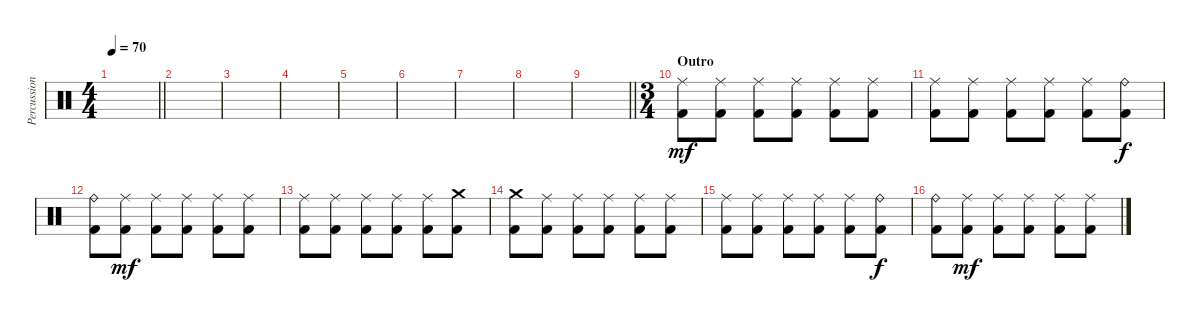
\track ("Percussion" "Percussion") {instrument percussion}
\staff {score}
\articulation defaults
\ts (4 4)
\tempo 70
\clef neutral
\barLineRight lightlight
\ks c
|
|
|
|
|
|
|
|
\barLineRight lightlight
|
\ts (3 4)
\section ("" "Outro")
("Ride (middle)" "Kick (hit) 2").8{dy mf} ("Ride (middle)" "Kick (hit) 2").8 ("Ride (middle)" "Kick (hit) 2").8 ("Ride (middle)" "Kick (hit) 2").8 ("Ride (middle)" "Kick (hit) 2").8 ("Ride (middle)" "Kick (hit) 2").8 |
("Ride (middle)" "Kick (hit) 2").8 ("Ride (middle)" "Kick (hit) 2").8 ("Ride (middle)" "Kick (hit) 2").8 ("Ride (middle)" "Kick (hit) 2").8 ("Ride (middle)" "Kick (hit) 2").8 ("Ride (bell)" "Kick (hit) 2").8{dy f} |
("Ride (bell)" "Kick (hit) 2").8 ("Ride (middle)" "Kick (hit) 2").8{dy mf} ("Ride (middle)" "Kick (hit) 2").8 ("Ride (middle)" "Kick (hit) 2").8 ("Ride (middle)" "Kick (hit) 2").8 ("Ride (middle)" "Kick (hit) 2").8 |
("Ride (middle)" "Kick (hit) 2").8 ("Ride (middle)" "Kick (hit) 2").8 ("Ride (middle)" "Kick (hit) 2").8 ("Ride (middle)" "Kick (hit) 2").8 ("Ride (middle)" "Kick (hit) 2").8 ("Crash medium (hit)" "Kick (hit) 2").8 |
("Crash medium (hit)" "Kick (hit) 2").8 ("Ride (middle)" "Kick (hit) 2").8 ("Ride (middle)" "Kick (hit) 2").8 ("Ride (middle)" "Kick (hit) 2").8 ("Ride (middle)" "Kick (hit) 2").8 ("Ride (middle)" "Kick (hit) 2").8 |
("Ride (middle)" "Kick (hit) 2").8 ("Ride (middle)" "Kick (hit) 2").8 ("Ride (middle)" "Kick (hit) 2").8 ("Ride (middle)" "Kick (hit) 2").8 ("Ride (middle)" "Kick (hit) 2").8 ("Ride (bell)" "Kick (hit) 2").8{dy f} |
("Ride (bell)" "Kick (hit) 2").8 ("Ride (middle)" "Kick (hit) 2").8{dy mf} ("Ride (middle)" "Kick (hit) 2").8 ("Ride (middle)" "Kick (hit) 2").8 ("Ride (middle)" "Kick (hit) 2").8 ("Ride (middle)" "Kick (hit) 2").8
